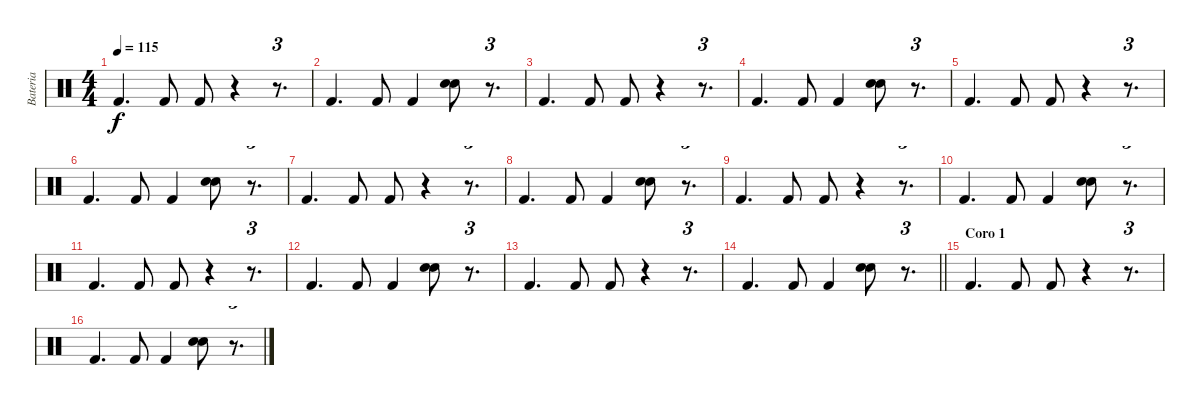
\track ("Bateria" "Bateria") {instrument percussion}
\staff {score}
\articulation defaults
\ts (4 4)
\tempo 115
\clef neutral
\ks c "Kick (hit) 2".4{d dy f} "Kick (hit) 2".8 "Kick (hit) 2".8
r.4 r.8{d tu (3 2)} |
"Kick (hit) 2".4{d} "Kick (hit) 2".8 "Kick (hit) 2".4 ("Electric Snare (hit)" "Snare (hit) 2").8 r.8{d tu (3 2)} |
"Kick (hit) 2".4{d} "Kick (hit) 2".8 "Kick (hit) 2".8 r.4 r.8{d tu (3 2)} |
"Kick (hit) 2".4{d} "Kick (hit) 2".8 "Kick (hit) 2".4 ("Electric Snare (hit)" "Snare (hit) 2").8 r.8{d tu (3 2)} |
"Kick (hit) 2".4{d} "Kick (hit) 2".8 "Kick (hit) 2".8 r.4 r.8{d tu (3 2)} |
"Kick (hit) 2".4{d} "Kick (hit) 2".8 "Kick (hit) 2".4 ("Electric Snare (hit)" "Snare (hit) 2").8 r.8{d tu (3 2)} |
"Kick (hit) 2".4{d} "Kick (hit) 2".8 "Kick (hit) 2".8 r.4 r.8{d tu (3 2)} |
"Kick (hit) 2".4{d} "Kick (hit) 2".8 "Kick (hit) 2".4 ("Electric Snare (hit)" "Snare (hit) 2").8 r.8{d tu (3 2)} |
"Kick (hit) 2".4{d} "Kick (hit) 2".8 "Kick (hit) 2".8 r.4 r.8{d tu (3 2)} |
"Kick (hit) 2".4{d} "Kick (hit) 2".8 "Kick (hit) 2".4 ("Snare (hit) 2" "Electric Snare (hit)").8 r.8{d tu (3 2)} |
"Kick (hit) 2".4{d} "Kick (hit) 2".8 "Kick (hit) 2".8 r.4 r.8{d tu (3 2)} |
"Kick (hit) 2".4{d} "Kick (hit) 2".8 "Kick (hit) 2".4 ("Snare (hit) 2" "Electric Snare (hit)").8 r.8{d tu (3 2)} |
"Kick (hit) 2".4{d} "Kick (hit) 2".8 "Kick (hit) 2".8 r.4 r.8{d tu (3 2)} |
\barLineRight lightlight "Kick (hit) 2".4{d} "Kick (hit) 2".8 "Kick (hit) 2".4
("Snare (hit) 2" "Electric Snare (hit)").8 r.8{d tu (3 2)} |
\section ("" "Coro 1")
"Kick (hit) 2".4{d} "Kick (hit) 2".8 "Kick (hit) 2".8 r.4 r.8{d tu (3 2)} |
"Kick (hit) 2".4{d} "Kick (hit) 2".8 "Kick (hit) 2".4 ("Snare (hit) 2" "Electric Snare (hit)").8 r.8{d tu (3 2)}
